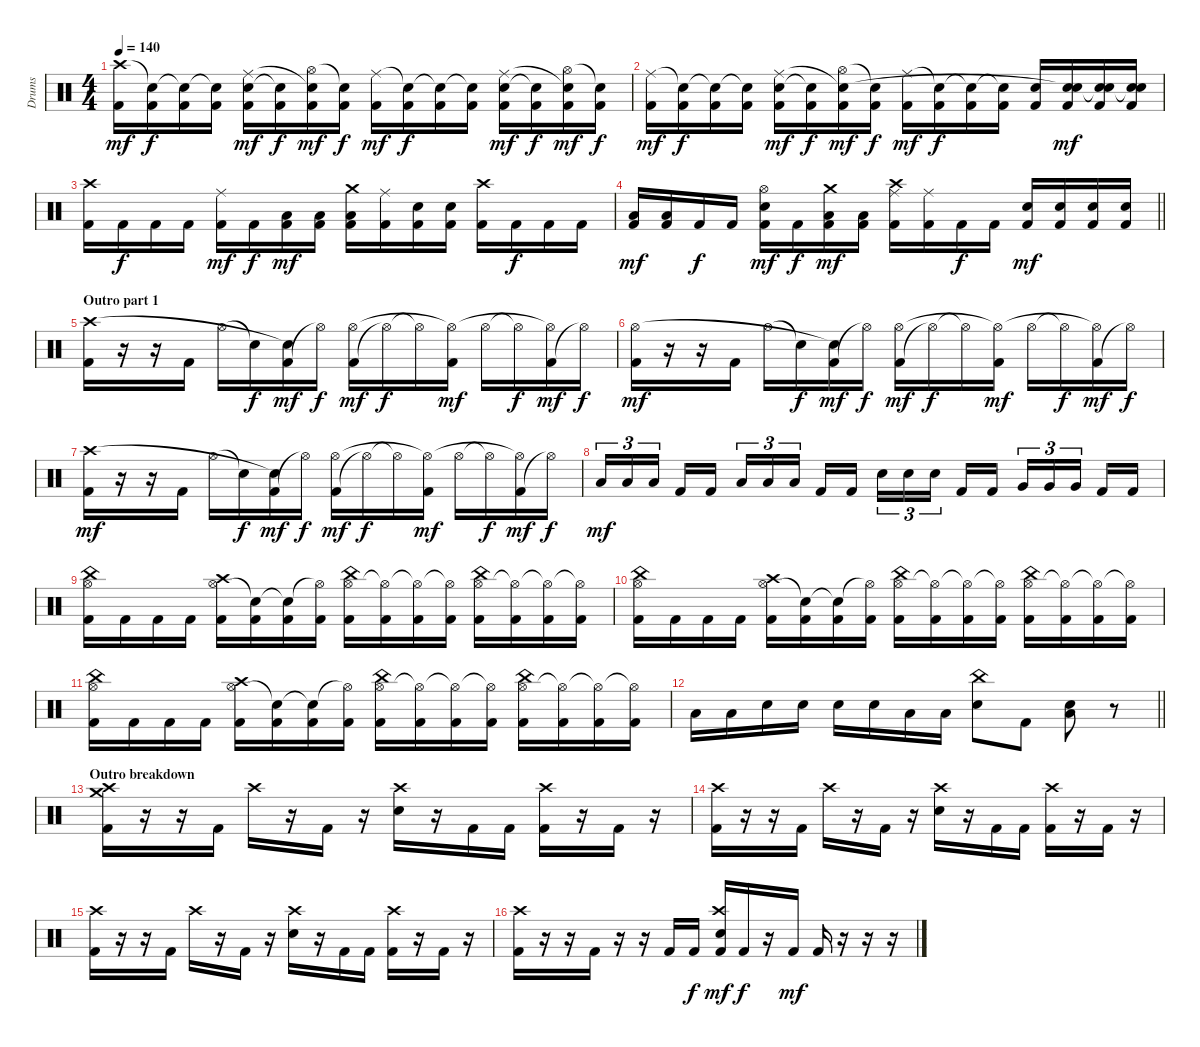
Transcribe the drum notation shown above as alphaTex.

\track ("Drums" "Drums") {instrument percussion}
\staff {score}
\articulation defaults
\ts (4 4)
\tempo 140
\clef neutral
\ks c
("Kick (hit) 2" "Crash high (hit)").16{dy mf} ("Kick (hit) 2" "Snare (hit)"{t}).16{dy f} ("Kick (hit) 2" "Snare (hit)"{t}).16 ("Kick (hit) 2" "Snare (hit)"{t}).16 ("Kick (hit) 2" "Snare (hit) 2" "Ride (middle)").16{dy mf} ("Kick (hit) 2" "Snare (hit)"{t}).16{dy f} ("Kick (hit) 2" "Hi-Hat (open)" "Snare (hit)"{t}).16{dy mf} ("Kick (hit) 2" "Snare (hit)"{t}).16{dy f} ("Kick (hit) 2" "Ride (middle)").16{dy mf} ("Kick (hit) 2" "Snare (hit)"{t}).16{dy f} ("Kick (hit) 2" "Snare (hit)"{t}).16 ("Kick (hit) 2" "Snare (hit)"{t}).16 ("Kick (hit) 2" "Snare (hit) 2" "Ride (middle)").16{dy mf} ("Kick (hit) 2" "Snare (hit)"{t}).16{dy f} ("Kick (hit) 2" "Hi-Hat (open)" "Snare (hit)"{t}).16{dy mf} ("Kick (hit) 2" "Snare (hit)"{t}).16{dy f} |
("Kick (hit) 2" "Ride (middle)").16{dy mf} ("Kick (hit) 2" "Snare (hit)"{t}).16{dy f} ("Kick (hit) 2" "Snare (hit)"{t}).16 ("Kick (hit) 2" "Snare (hit)"{t}).16 ("Kick (hit) 2" "Snare (hit) 2" "Ride (middle)").16{dy mf} ("Kick (hit) 2" "Snare (hit)"{t}).16{dy f} ("Kick (hit) 2" "Hi-Hat (open)" "Snare (hit)"{t}).16{dy mf} ("Kick (hit) 2" "Snare (hit)"{t}).16{dy f} ("Kick (hit) 2" "Ride (middle)").16{dy mf} ("Kick (hit) 2" "Snare (hit)"{t}).16{dy f} ("Kick (hit) 2" "Snare (hit)"{t}).16 ("Kick (hit) 2" "Snare (hit)"{t}).16 ("Kick (hit) 2" "Snare (hit) 2").16 ("Kick (hit) 2" "Snare (hit) 2" "Snare (hit)"{t}).16{dy mf} ("Kick (hit) 2" "Snare (hit) 2" "Snare (hit)"{t}).16 ("Kick (hit) 2" "Snare (hit) 2" "Snare (hit)"{t}).16 |
("Kick (hit) 2" "Crash high (hit)").16 "Kick (hit) 2".16{dy f} "Kick (hit) 2".16 "Kick (hit) 2".16 ("Kick (hit) 2" "Ride (middle)").16{dy mf} "Kick (hit) 2".16{dy f} ("Kick (hit) 2" "Low Tom (hit)").16{dy mf} ("Kick (hit) 2" "Low Tom (hit)").16 ("Kick (hit) 2" "Low Tom (hit)" "Crash medium (hit)").16 ("Kick (hit) 2" "Ride (middle)").16 ("Kick (hit) 2" "Snare (hit) 2").16 ("Kick (hit) 2" "Snare (hit) 2").16 ("Kick (hit) 2" "Crash high (hit)").16 "Kick (hit) 2".16{dy f} "Kick (hit) 2".16 "Kick (hit) 2".16 |
\barLineRight lightlight
("Kick (hit) 2" "Low Tom (hit)").16{dy mf} ("Kick (hit) 2" "Low Tom (hit)").16 "Kick (hit) 2".16{dy f} "Kick (hit) 2".16 ("Kick (hit) 2" "Snare (hit) 2" "Hi-Hat (open)").16{dy mf} "Kick (hit) 2".16{dy f} ("Kick (hit) 2" "Low Tom (hit)" "Crash medium (hit)").16{dy mf} ("Kick (hit) 2" "Low Tom (hit)").16 ("Kick (hit) 2" "Ride (middle)" "Crash high (hit)").16 ("Kick (hit) 2" "Ride (middle)").16 "Kick (hit) 2".16{dy f} "Kick (hit) 2".16 ("Kick (hit) 2" "Snare (hit) 2").16{dy mf} ("Kick (hit) 2" "Snare (hit) 2").16 ("Kick (hit) 2" "Snare (hit) 2").16 ("Kick (hit) 2" "Snare (hit) 2").16 |
\section ("" "Outro part 1")
("Kick (hit) 2" "Crash high (hit)").16 r.16 r.16 "Kick (hit) 2".16 "Hi-Hat (open)".16 "Snare (hit)"{t}.16{dy f} ("Kick (hit) 2" "Snare (hit)"{t}).16{dy mf} "Hi-Hat (open)"{t}.16{dy f} ("Kick (hit) 2" "Hi-Hat (open)").16{dy mf} "Hi-Hat (open)"{t}.16{dy f} "Hi-Hat (open)"{t}.16 ("Kick (hit) 2" "Hi-Hat (open)"{t}).16{dy mf} "Hi-Hat (open)".16 "Hi-Hat (open)"{t}.16{dy f} ("Kick (hit) 2" "Hi-Hat (open)"{t}).16{dy mf} "Hi-Hat (open)"{t}.16{dy f} |
("Kick (hit) 2" "Hi-Hat (open)").16{dy mf} r.16 r.16 "Kick (hit) 2".16 "Hi-Hat (open)".16 "Snare (hit)"{t}.16{dy f} ("Kick (hit) 2" "Snare (hit)"{t}).16{dy mf} "Hi-Hat (open)"{t}.16{dy f} ("Kick (hit) 2" "Hi-Hat (open)").16{dy mf} "Hi-Hat (open)"{t}.16{dy f} "Hi-Hat (open)"{t}.16 ("Kick (hit) 2" "Hi-Hat (open)"{t}).16{dy mf} "Hi-Hat (open)".16 "Hi-Hat (open)"{t}.16{dy f} ("Kick (hit) 2" "Hi-Hat (open)"{t}).16{dy mf} "Hi-Hat (open)"{t}.16{dy f} |
("Kick (hit) 2" "Crash high (hit)").16{dy mf} r.16 r.16 "Kick (hit) 2".16 "Hi-Hat (open)".16 "Snare (hit)"{t}.16{dy f} ("Kick (hit) 2" "Snare (hit)"{t}).16{dy mf} "Hi-Hat (open)"{t}.16{dy f} ("Kick (hit) 2" "Hi-Hat (open)").16{dy mf} "Hi-Hat (open)"{t}.16{dy f} "Hi-Hat (open)"{t}.16 ("Kick (hit) 2" "Hi-Hat (open)"{t}).16{dy mf} "Hi-Hat (open)".16 "Hi-Hat (open)"{t}.16{dy f} ("Kick (hit) 2" "Hi-Hat (open)"{t}).16{dy mf} "Hi-Hat (open)"{t}.16{dy f} |
"Low Tom (hit)".16{tu (3 2) dy mf} "Low Tom (hit)".16{tu (3 2)} "Low Tom (hit)".16{tu (3 2) beam splitsecondary} "Kick (hit) 2".16 "Kick (hit) 2".16 "Low Tom (hit)".16{tu (3 2)} "Low Tom (hit)".16{tu (3 2)} "Low Tom (hit)".16{tu (3 2) beam splitsecondary} "Kick (hit) 2".16 "Kick (hit) 2".16 "Snare (hit) 2".16{tu (3 2)} "Snare (hit) 2".16{tu (3 2)} "Snare (hit) 2".16{tu (3 2) beam splitsecondary} "Kick (hit) 2".16 "Kick (hit) 2".16 "Very Low Tom (hit)".16{tu (3 2)} "Very Low Tom (hit)".16{tu (3 2)} "Very Low Tom (hit)".16{tu (3 2) beam splitsecondary} "Kick (hit) 2".16 "Kick (hit) 2".16 |
("Kick (hit) 2" "Hi-Hat (open)" "China (hit)").16 "Kick (hit) 2".16 "Kick (hit) 2".16 "Kick (hit) 2".16 ("Kick (hit) 2" "Hi-Hat (open)" "Crash high (hit)").16 ("Kick (hit) 2" "Snare (hit)"{t}).16 ("Kick (hit) 2" "Snare (hit)"{t}).16 ("Kick (hit) 2" "Hi-Hat (open)"{t}).16 ("Kick (hit) 2" "Hi-Hat (open)" "China (hit)").16 ("Kick (hit) 2" "Hi-Hat (open)"{t}).16 ("Kick (hit) 2" "Hi-Hat (open)"{t}).16 ("Kick (hit) 2" "Hi-Hat (open)"{t}).16 ("Kick (hit) 2" "Hi-Hat (open)" "China (hit)").16 ("Kick (hit) 2" "Hi-Hat (open)"{t}).16 ("Kick (hit) 2" "Hi-Hat (open)"{t}).16 ("Kick (hit) 2" "Hi-Hat (open)"{t}).16 |
("Kick (hit) 2" "Hi-Hat (open)" "China (hit)").16 "Kick (hit) 2".16 "Kick (hit) 2".16 "Kick (hit) 2".16 ("Kick (hit) 2" "Hi-Hat (open)" "Crash high (hit)").16 ("Kick (hit) 2" "Snare (hit)"{t}).16 ("Kick (hit) 2" "Snare (hit)"{t}).16 ("Kick (hit) 2" "Hi-Hat (open)"{t}).16 ("Kick (hit) 2" "Hi-Hat (open)" "China (hit)").16 ("Kick (hit) 2" "Hi-Hat (open)"{t}).16 ("Kick (hit) 2" "Hi-Hat (open)"{t}).16 ("Kick (hit) 2" "Hi-Hat (open)"{t}).16 ("Kick (hit) 2" "Hi-Hat (open)" "China (hit)").16 ("Kick (hit) 2" "Hi-Hat (open)"{t}).16 ("Kick (hit) 2" "Hi-Hat (open)"{t}).16 ("Kick (hit) 2" "Hi-Hat (open)"{t}).16 |
("Kick (hit) 2" "Hi-Hat (open)" "China (hit)").16 "Kick (hit) 2".16 "Kick (hit) 2".16 "Kick (hit) 2".16 ("Kick (hit) 2" "Hi-Hat (open)" "Crash high (hit)").16 ("Kick (hit) 2" "Snare (hit)"{t}).16 ("Kick (hit) 2" "Snare (hit)"{t}).16 ("Kick (hit) 2" "Hi-Hat (open)"{t}).16 ("Kick (hit) 2" "Hi-Hat (open)" "China (hit)").16 ("Kick (hit) 2" "Hi-Hat (open)"{t}).16 ("Kick (hit) 2" "Hi-Hat (open)"{t}).16 ("Kick (hit) 2" "Hi-Hat (open)"{t}).16 ("Kick (hit) 2" "Hi-Hat (open)" "China (hit)").16 ("Kick (hit) 2" "Hi-Hat (open)"{t}).16 ("Kick (hit) 2" "Hi-Hat (open)"{t}).16 ("Kick (hit) 2" "Hi-Hat (open)"{t}).16 |
\barLineRight lightlight "Low Tom (hit)".16 "Low Tom (hit)".16 "Snare (hit) 2".16 "Snare (hit) 2".16 "Snare (hit) 2".16 "Snare (hit) 2".16 "Low Tom (hit)".16 "Low Tom (hit)".16
("China (hit)" "Snare (hit) 2").8 "Kick (hit) 2".8 ("Low Tom (hit)" "Snare (hit) 2").8 r.8 |
\section ("" "Outro breakdown")
("Kick (hit) 2" "Crash high (hit)" "Crash medium (hit)").16 r.16 r.16 "Kick (hit) 2".16 "Crash high (hit)".16 r.16 "Kick (hit) 2".16 r.16 ("Snare (hit) 2" "Crash high (hit)").16 r.16 "Kick (hit) 2".16 "Kick (hit) 2".16 ("Kick (hit) 2" "Crash high (hit)").16 r.16 "Kick (hit) 2".16 r.16 |
("Kick (hit) 2" "Crash high (hit)").16 r.16 r.16 "Kick (hit) 2".16 "Crash high (hit)".16 r.16 "Kick (hit) 2".16 r.16 ("Snare (hit) 2" "Crash high (hit)").16 r.16 "Kick (hit) 2".16 "Kick (hit) 2".16 ("Kick (hit) 2" "Crash high (hit)").16 r.16 "Kick (hit) 2".16 r.16 |
("Kick (hit) 2" "Crash high (hit)").16 r.16 r.16 "Kick (hit) 2".16 "Crash high (hit)".16 r.16 "Kick (hit) 2".16 r.16 ("Snare (hit) 2" "Crash high (hit)").16 r.16 "Kick (hit) 2".16 "Kick (hit) 2".16 ("Kick (hit) 2" "Crash high (hit)").16 r.16 "Kick (hit) 2".16 r.16 |
("Kick (hit) 2" "Crash high (hit)").16 r.16 r.16 "Kick (hit) 2".16 r.16 r.16 "Kick (hit) 2".16 "Kick (hit) 2".16{dy f} ("Kick (hit) 2" "Snare (hit) 2" "Crash high (hit)").16{dy mf} "Kick (hit) 2".16{dy f} r.16 "Kick (hit) 2".16{dy mf} "Kick (hit) 2".16 r.16 r.16 r.16
